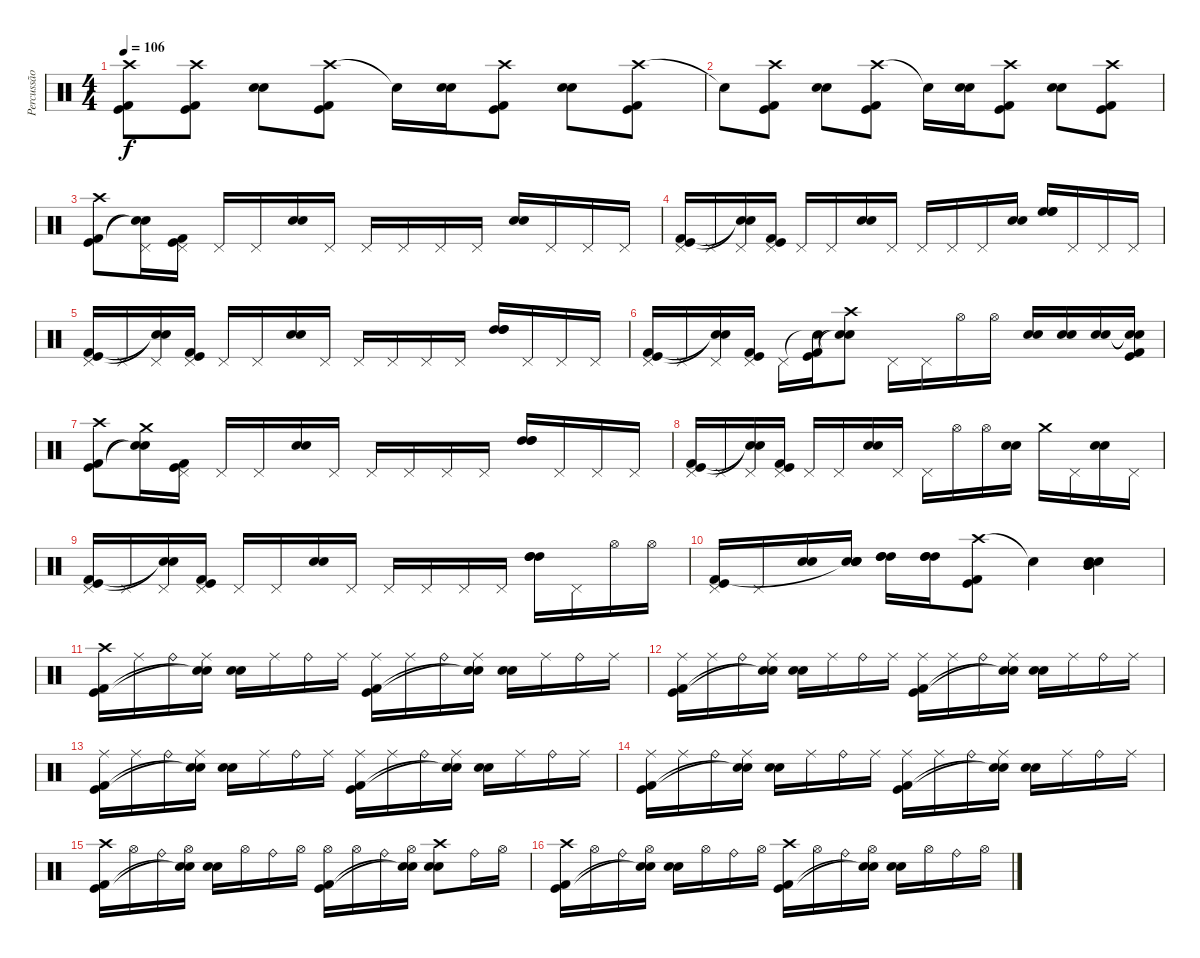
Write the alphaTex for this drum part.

\track ("Percussão" "Percussão") {instrument percussion}
\staff {score}
\articulation defaults
\ts (4 4)
\tempo 106
\clef neutral
\ks c
("Crash high (hit)" "Kick (hit)" "Kick (hit) 2").8{dy f} ("Crash high (hit)" "Kick (hit)" "Kick (hit) 2").8 ("Electric Snare (hit)" "Snare (hit) 2").8 ("Crash high (hit)" "Kick (hit)" "Kick (hit) 2").8 "Snare (hit)"{t}.16 ("Electric Snare (hit)" "Snare (hit) 2").16 ("Crash high (hit)" "Kick (hit)" "Kick (hit) 2").8 ("Electric Snare (hit)" "Snare (hit) 2").8 ("Crash high (hit)" "Kick (hit)" "Kick (hit) 2").8 |
"Snare (hit)"{t}.8 ("Crash high (hit)" "Kick (hit)" "Kick (hit) 2").8 ("Electric Snare (hit)" "Snare (hit) 2").8 ("Crash high (hit)" "Kick (hit)" "Kick (hit) 2").8 "Snare (hit)"{t}.16 ("Electric Snare (hit)" "Snare (hit) 2").16 ("Crash high (hit)" "Kick (hit)" "Kick (hit) 2").8 ("Electric Snare (hit)" "Snare (hit) 2").8 ("Crash high (hit)" "Kick (hit)" "Kick (hit) 2").8 |
("Crash high (hit)" "Kick (hit)" "Kick (hit) 2").8 ("Pedal Hi-Hat (hit)" "Snare (hit)"{t} "Snare (hit)"{t}).16 ("Pedal Hi-Hat (hit)" "Kick (hit) 2" "Kick (hit)").16 "Pedal Hi-Hat (hit)".16 "Pedal Hi-Hat (hit)".16 ("Electric Snare (hit)" "Snare (hit) 2").16 "Pedal Hi-Hat (hit)".16 "Pedal Hi-Hat (hit)".16 "Pedal Hi-Hat (hit)".16 "Pedal Hi-Hat (hit)".16 "Pedal Hi-Hat (hit)".16 ("Electric Snare (hit)" "Snare (hit) 2").16 "Pedal Hi-Hat (hit)".16 "Pedal Hi-Hat (hit)".16 "Pedal Hi-Hat (hit)".16 |
("Pedal Hi-Hat (hit)" "Kick (hit)" "Kick (hit) 2").16 "Pedal Hi-Hat (hit)".16 ("Pedal Hi-Hat (hit)" "Snare (hit)"{t} "Snare (hit)"{t}).16 ("Pedal Hi-Hat (hit)" "Kick (hit)" "Kick (hit) 2").16 "Pedal Hi-Hat (hit)".16 "Pedal Hi-Hat (hit)".16 ("Electric Snare (hit)" "Snare (hit) 2").16 "Pedal Hi-Hat (hit)".16 "Pedal Hi-Hat (hit)".16 "Pedal Hi-Hat (hit)".16 "Pedal Hi-Hat (hit)".16 ("Electric Snare (hit)" "Snare (hit) 2").16 ("High Floor Tom (hit)" "High Floor Tom (hit)" "High Floor Tom (hit)").16 "Pedal Hi-Hat (hit)".16 "Pedal Hi-Hat (hit)".16 "Pedal Hi-Hat (hit)".16 |
("Pedal Hi-Hat (hit)" "Kick (hit)" "Kick (hit) 2").16 "Pedal Hi-Hat (hit)".16 ("Pedal Hi-Hat (hit)" "Snare (hit)"{t} "Snare (hit)"{t}).16 ("Pedal Hi-Hat (hit)" "Kick (hit) 2" "Kick (hit)").16 "Pedal Hi-Hat (hit)".16 "Pedal Hi-Hat (hit)".16 ("Electric Snare (hit)" "Snare (hit) 2").16 "Pedal Hi-Hat (hit)".16 "Pedal Hi-Hat (hit)".16 "Pedal Hi-Hat (hit)".16 "Pedal Hi-Hat (hit)".16 "Pedal Hi-Hat (hit)".16 ("High Tom (hit)" "High Tom (hit)" "High Tom (hit)").16 "Pedal Hi-Hat (hit)".16 "Pedal Hi-Hat (hit)".16 "Pedal Hi-Hat (hit)".16 |
("Pedal Hi-Hat (hit)" "Kick (hit)" "Kick (hit) 2").16 "Pedal Hi-Hat (hit)".16 ("Pedal Hi-Hat (hit)" "Snare (hit)"{t} "Snare (hit)"{t}).16 ("Pedal Hi-Hat (hit)" "Kick (hit) 2" "Kick (hit)").16 "Pedal Hi-Hat (hit)".16 ("Snare (hit)"{t} "Kick (hit)" "Kick (hit) 2").16 ("Crash high (hit)" "Snare (hit)"{t} "Snare (hit)"{t}).8 "Pedal Hi-Hat (hit)".16 "Pedal Hi-Hat (hit)".16 "Hi-Hat (open)".16 "Hi-Hat (open)".16 ("Electric Snare (hit)" "Snare (hit) 2").16 ("Electric Snare (hit)" "Snare (hit) 2").16 ("Electric Snare (hit)" "Snare (hit) 2").16 ("Snare (hit)"{t} "Snare (hit)"{t} "Kick (hit)" "Kick (hit) 2").16 |
("Crash high (hit)" "Kick (hit) 2" "Kick (hit)").8 ("Crash medium (hit)" "Snare (hit)"{t} "Snare (hit)"{t}).16 ("Pedal Hi-Hat (hit)" "Kick (hit)" "Kick (hit) 2").16 "Pedal Hi-Hat (hit)".16 "Pedal Hi-Hat (hit)".16 ("Electric Snare (hit)" "Snare (hit) 2").16 "Pedal Hi-Hat (hit)".16 "Pedal Hi-Hat (hit)".16 "Pedal Hi-Hat (hit)".16 "Pedal Hi-Hat (hit)".16 "Pedal Hi-Hat (hit)".16 ("High Tom (hit)" "High Tom (hit)" "High Tom (hit)").16 "Pedal Hi-Hat (hit)".16 "Pedal Hi-Hat (hit)".16 "Pedal Hi-Hat (hit)".16 |
("Pedal Hi-Hat (hit)" "Kick (hit) 2" "Kick (hit)").16 "Pedal Hi-Hat (hit)".16 ("Pedal Hi-Hat (hit)" "Snare (hit)"{t} "Snare (hit)"{t}).16 ("Pedal Hi-Hat (hit)" "Kick (hit)" "Kick (hit) 2").16 "Pedal Hi-Hat (hit)".16 "Pedal Hi-Hat (hit)".16 ("Electric Snare (hit)" "Snare (hit) 2").16 "Pedal Hi-Hat (hit)".16 "Pedal Hi-Hat (hit)".16 "Hi-Hat (open)".16 "Hi-Hat (open)".16 ("Electric Snare (hit)" "Snare (hit) 2").16 "Crash medium (hit)".16 "Pedal Hi-Hat (hit)".16 ("Electric Snare (hit)" "Snare (hit) 2").16 "Pedal Hi-Hat (hit)".16 |
("Pedal Hi-Hat (hit)" "Kick (hit)" "Kick (hit) 2").16 "Pedal Hi-Hat (hit)".16 ("Pedal Hi-Hat (hit)" "Snare (hit)"{t} "Snare (hit)"{t}).16 ("Pedal Hi-Hat (hit)" "Kick (hit)" "Kick (hit) 2").16 "Pedal Hi-Hat (hit)".16 "Pedal Hi-Hat (hit)".16 ("Electric Snare (hit)" "Snare (hit) 2").16 "Pedal Hi-Hat (hit)".16 "Pedal Hi-Hat (hit)".16 "Pedal Hi-Hat (hit)".16 "Pedal Hi-Hat (hit)".16 "Pedal Hi-Hat (hit)".16 ("High Tom (hit)" "High Tom (hit)" "High Tom (hit)").16 "Pedal Hi-Hat (hit)".16 "Hi-Hat (open)".16 "Hi-Hat (open)".16 |
("Pedal Hi-Hat (hit)" "Kick (hit)" "Kick (hit) 2").16 "Pedal Hi-Hat (hit)".16 ("Electric Snare (hit)" "Snare (hit) 2").16 ("Electric Snare (hit)" "Snare (hit) 2" "Snare (hit)"{t} "Snare (hit)").16 ("High Tom (hit)" "High Tom (hit)" "High Tom (hit)").16 ("High Tom (hit)" "High Tom (hit)" "High Tom (hit)").16 ("Crash high (hit)" "Kick (hit)" "Kick (hit) 2").8 "Snare (hit)"{t}.4 ("Electric Snare (hit)" "Snare (hit) 2" "Mid Tom (hit)" "Mid Tom (hit)" "Mid Tom (hit)").4 |
("Crash high (hit)" "Kick (hit)" "Kick (hit) 2").16 "Ride (middle)".16 "Ride (bell)".16 ("Ride (middle)" "Snare (hit)"{t} "Snare (hit)"{t}).16 ("Electric Snare (hit)" "Snare (hit) 2").16 "Ride (middle)".16 "Ride (bell)".16 "Ride (middle)".16 ("Ride (middle)" "Kick (hit)" "Kick (hit) 2").16 "Ride (middle)".16 "Ride (bell)".16 ("Ride (middle)" "Snare (hit)"{t} "Snare (hit)"{t}).16 ("Electric Snare (hit)" "Snare (hit) 2").16 "Ride (middle)".16 "Ride (bell)".16 "Ride (middle)".16 |
("Ride (middle)" "Kick (hit)" "Kick (hit) 2").16 "Ride (middle)".16 "Ride (bell)".16 ("Ride (middle)" "Snare (hit)"{t} "Snare (hit)"{t}).16 ("Electric Snare (hit)" "Snare (hit) 2").16 "Ride (middle)".16 "Ride (bell)".16 "Ride (middle)".16 ("Ride (middle)" "Kick (hit)" "Kick (hit) 2").16 "Ride (middle)".16 "Ride (bell)".16 ("Ride (middle)" "Snare (hit)"{t} "Snare (hit)"{t}).16 ("Electric Snare (hit)" "Snare (hit) 2").16 "Ride (middle)".16 "Ride (bell)".16 "Ride (middle)".16 |
("Ride (middle)" "Kick (hit)" "Kick (hit) 2").16 "Ride (middle)".16 "Ride (bell)".16 ("Ride (middle)" "Snare (hit)"{t} "Snare (hit)"{t}).16 ("Electric Snare (hit)" "Snare (hit) 2").16 "Ride (middle)".16 "Ride (bell)".16 "Ride (middle)".16 ("Ride (middle)" "Kick (hit)" "Kick (hit) 2").16 "Ride (middle)".16 "Ride (bell)".16 ("Ride (middle)" "Snare (hit)"{t} "Snare (hit)"{t}).16 ("Electric Snare (hit)" "Snare (hit) 2").16 "Ride (middle)".16 "Ride (bell)".16 "Ride (middle)".16 |
("Ride (middle)" "Kick (hit)" "Kick (hit) 2").16 "Ride (middle)".16 "Ride (bell)".16 ("Ride (middle)" "Snare (hit)"{t} "Snare (hit)"{t}).16 ("Electric Snare (hit)" "Snare (hit) 2").16 "Ride (middle)".16 "Ride (bell)".16 "Ride (middle)".16 ("Ride (middle)" "Kick (hit)" "Kick (hit) 2").16 "Ride (middle)".16 "Ride (bell)".16 ("Ride (middle)" "Snare (hit)"{t} "Snare (hit)"{t}).16 ("Electric Snare (hit)" "Snare (hit) 2").16 "Ride (middle)".16 "Ride (bell)".16 "Ride (middle)".16 |
("Crash high (hit)" "Kick (hit) 2" "Kick (hit)").16 "Hi-Hat (open)".16 "Ride (bell)".16 ("Hi-Hat (open)" "Snare (hit)"{t} "Snare (hit)"{t}).16 ("Electric Snare (hit)" "Snare (hit) 2").16 "Hi-Hat (open)".16 "Ride (bell)".16 "Hi-Hat (open)".16 ("Hi-Hat (open)" "Kick (hit)" "Kick (hit) 2").16 "Hi-Hat (open)".16 "Ride (bell)".16 ("Hi-Hat (open)" "Snare (hit)"{t} "Snare (hit)"{t}).16 ("Crash high (hit)" "Electric Snare (hit)" "Snare (hit) 2").8 "Ride (bell)".16 "Hi-Hat (open)".16 |
("Crash high (hit)" "Kick (hit)" "Kick (hit) 2").16 "Hi-Hat (open)".16 "Ride (bell)".16 ("Hi-Hat (open)" "Snare (hit)"{t} "Snare (hit)"{t}).16 ("Electric Snare (hit)" "Snare (hit) 2").16 "Hi-Hat (open)".16 "Ride (bell)".16 "Hi-Hat (open)".16 ("Crash high (hit)" "Kick (hit)" "Kick (hit) 2").16 "Hi-Hat (open)".16 "Ride (bell)".16 ("Hi-Hat (open)" "Snare (hit)"{t} "Snare (hit)"{t}).16 ("Electric Snare (hit)" "Snare (hit) 2").16 "Hi-Hat (open)".16 "Ride (bell)".16 "Hi-Hat (open)".16
